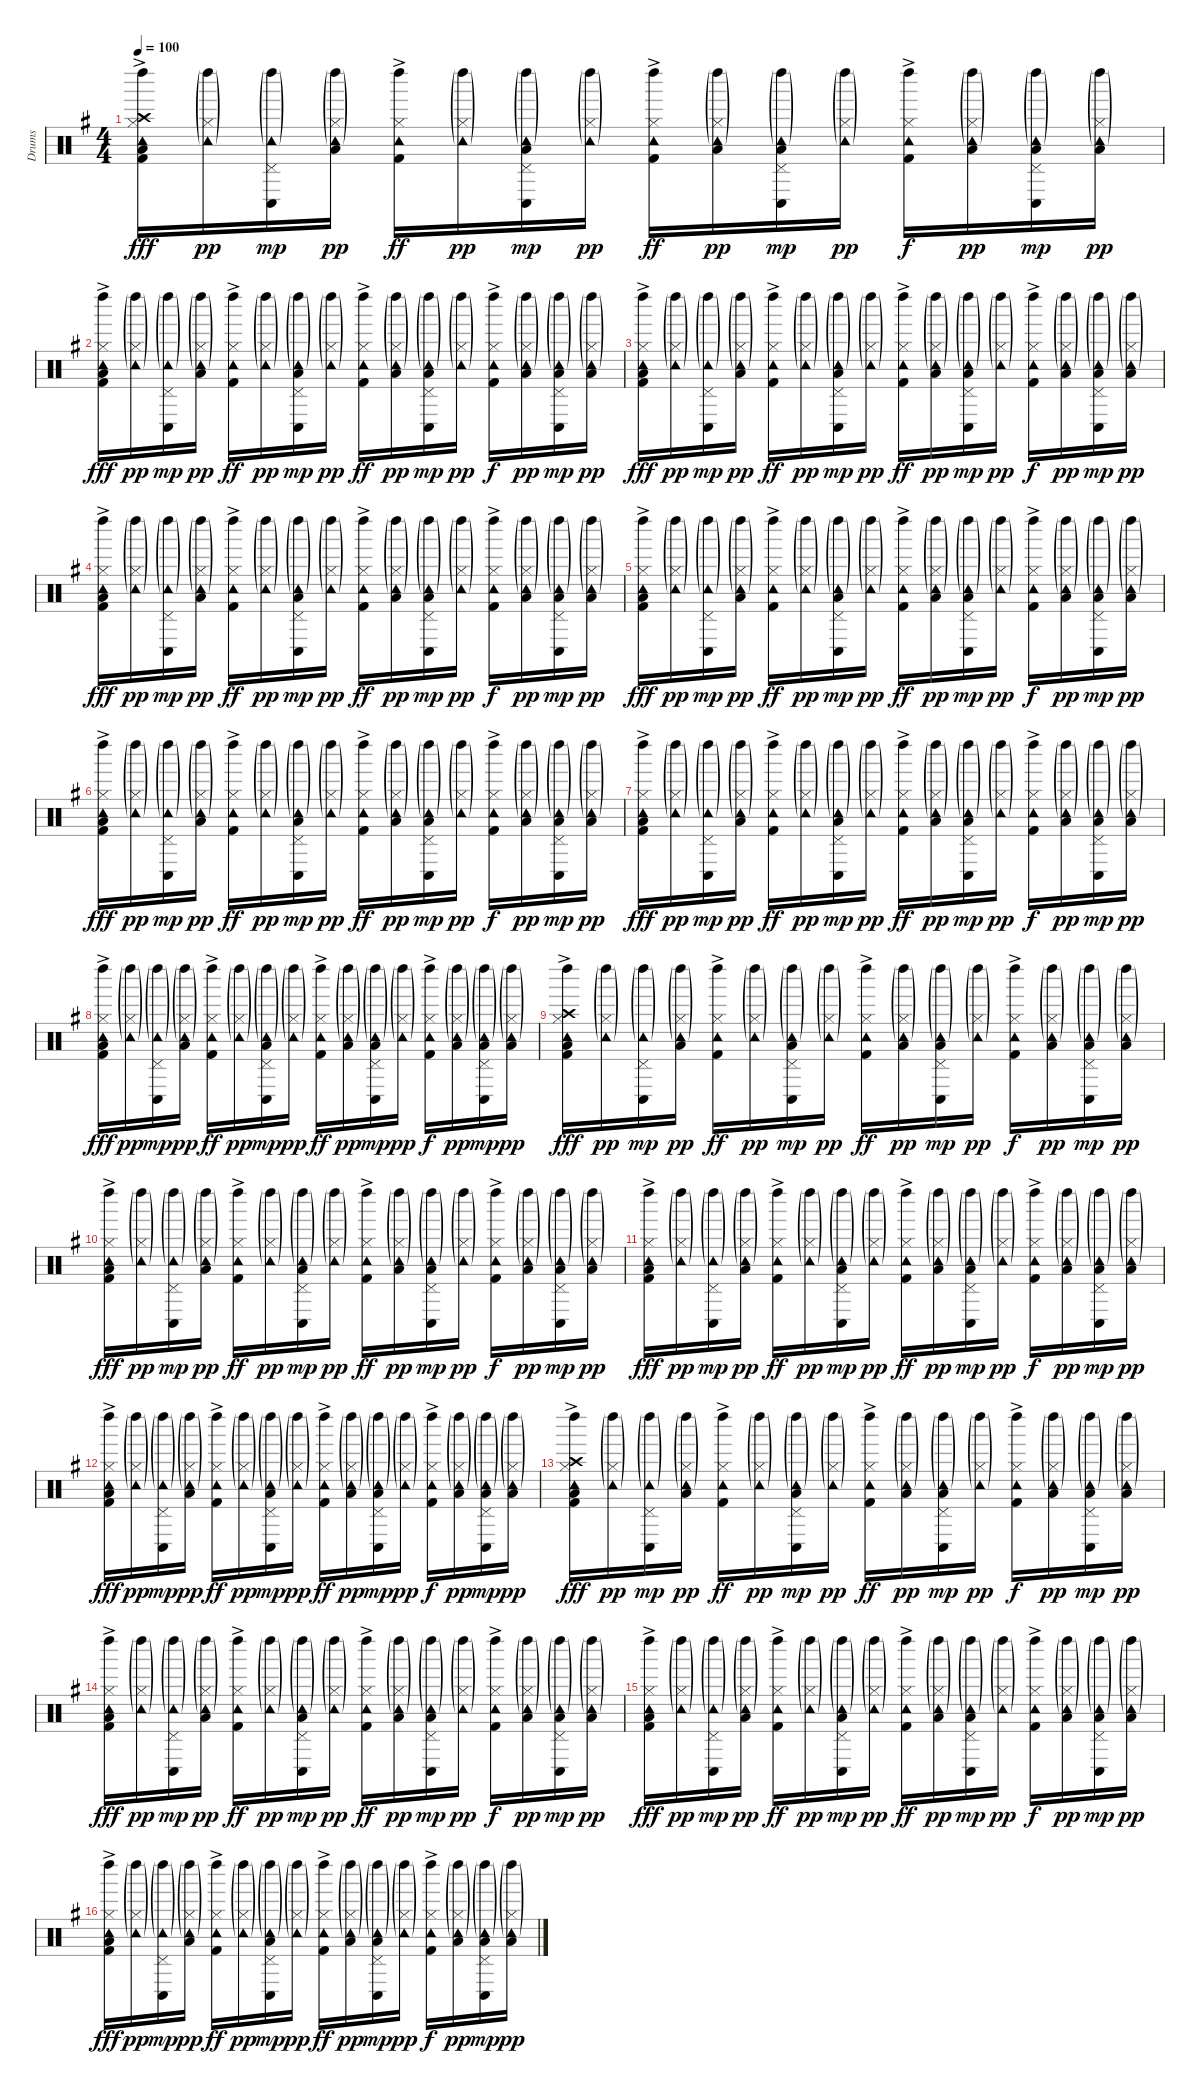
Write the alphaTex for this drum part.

\track ("Drums" "Drums") {instrument percussion}
\staff {score}
\articulation defaults
\ts (4 4)
\tempo 100
\clef neutral
\ks g
("Kick (hit) 2"{ac} "Low Floor Tom (hit)" "Crash high (hit)" "Hi-Hat (closed)" "Tambourine (hit)" "Left Maraca (hit)").16{dy fff} ("Hi-Hat (closed)"{g} "Tambourine (hit)"{g} "Left Maraca (hit)"{g}).16{dy pp} ("Conga low (hit)" "Pedal Hi-Hat (hit)" "Tambourine (hit)"{g} "Left Maraca (hit)"{g}).16{dy mp} ("Low Floor Tom (hit)" "Hi-Hat (closed)"{g} "Tambourine (hit)"{g} "Left Maraca (hit)"{g}).16{dy pp} ("Kick (hit) 2"{ac} "Hi-Hat (closed)" "Tambourine (hit)" "Left Maraca (hit)").16{dy ff} ("Hi-Hat (closed)"{g} "Tambourine (hit)"{g} "Left Maraca (hit)"{g}).16{dy pp} ("Low Floor Tom (hit)" "Conga low (hit)" "Pedal Hi-Hat (hit)" "Tambourine (hit)"{g} "Left Maraca (hit)"{g}).16{dy mp} ("Hi-Hat (closed)"{g} "Tambourine (hit)"{g} "Left Maraca (hit)"{g}).16{dy pp} ("Kick (hit) 2"{ac} "Hi-Hat (closed)" "Tambourine (hit)" "Left Maraca (hit)").16{dy ff} ("Low Floor Tom (hit)" "Hi-Hat (closed)"{g} "Tambourine (hit)"{g} "Left Maraca (hit)"{g}).16{dy pp} ("Low Floor Tom (hit)" "Conga low (hit)" "Pedal Hi-Hat (hit)" "Tambourine (hit)"{g} "Left Maraca (hit)"{g}).16{dy mp} ("Hi-Hat (closed)"{g} "Tambourine (hit)"{g} "Left Maraca (hit)"{g}).16{dy pp} ("Kick (hit) 2"{ac} "Hi-Hat (closed)" "Tambourine (hit)" "Left Maraca (hit)").16{dy f} ("Low Floor Tom (hit)" "Hi-Hat (closed)"{g} "Tambourine (hit)"{g} "Left Maraca (hit)"{g}).16{dy pp} ("Low Floor Tom (hit)" "Conga low (hit)" "Pedal Hi-Hat (hit)" "Tambourine (hit)"{g} "Left Maraca (hit)"{g}).16{dy mp} ("Low Floor Tom (hit)" "Hi-Hat (closed)"{g} "Tambourine (hit)"{g} "Left Maraca (hit)"{g}).16{dy pp} |
("Kick (hit) 2"{ac} "Low Floor Tom (hit)" "Hi-Hat (closed)" "Tambourine (hit)" "Left Maraca (hit)").16{dy fff} ("Hi-Hat (closed)"{g} "Tambourine (hit)"{g} "Left Maraca (hit)"{g}).16{dy pp} ("Conga low (hit)" "Pedal Hi-Hat (hit)" "Tambourine (hit)"{g} "Left Maraca (hit)"{g}).16{dy mp} ("Low Floor Tom (hit)" "Hi-Hat (closed)"{g} "Tambourine (hit)"{g} "Left Maraca (hit)"{g}).16{dy pp} ("Kick (hit) 2"{ac} "Hi-Hat (closed)" "Tambourine (hit)" "Left Maraca (hit)").16{dy ff} ("Hi-Hat (closed)"{g} "Tambourine (hit)"{g} "Left Maraca (hit)"{g}).16{dy pp} ("Low Floor Tom (hit)" "Conga low (hit)" "Pedal Hi-Hat (hit)" "Tambourine (hit)"{g} "Left Maraca (hit)"{g}).16{dy mp} ("Hi-Hat (closed)"{g} "Tambourine (hit)"{g} "Left Maraca (hit)"{g}).16{dy pp} ("Kick (hit) 2"{ac} "Hi-Hat (closed)" "Tambourine (hit)" "Left Maraca (hit)").16{dy ff} ("Low Floor Tom (hit)" "Hi-Hat (closed)"{g} "Tambourine (hit)"{g} "Left Maraca (hit)"{g}).16{dy pp} ("Low Floor Tom (hit)" "Conga low (hit)" "Pedal Hi-Hat (hit)" "Tambourine (hit)"{g} "Left Maraca (hit)"{g}).16{dy mp} ("Hi-Hat (closed)"{g} "Tambourine (hit)"{g} "Left Maraca (hit)"{g}).16{dy pp} ("Kick (hit) 2"{ac} "Hi-Hat (closed)" "Tambourine (hit)" "Left Maraca (hit)").16{dy f} ("Low Floor Tom (hit)" "Hi-Hat (closed)"{g} "Tambourine (hit)"{g} "Left Maraca (hit)"{g}).16{dy pp} ("Low Floor Tom (hit)" "Conga low (hit)" "Pedal Hi-Hat (hit)" "Tambourine (hit)"{g} "Left Maraca (hit)"{g}).16{dy mp} ("Low Floor Tom (hit)" "Hi-Hat (closed)"{g} "Tambourine (hit)"{g} "Left Maraca (hit)"{g}).16{dy pp} |
("Kick (hit) 2"{ac} "Low Floor Tom (hit)" "Hi-Hat (closed)" "Tambourine (hit)" "Left Maraca (hit)").16{dy fff} ("Hi-Hat (closed)"{g} "Tambourine (hit)"{g} "Left Maraca (hit)"{g}).16{dy pp} ("Conga low (hit)" "Pedal Hi-Hat (hit)" "Tambourine (hit)"{g} "Left Maraca (hit)"{g}).16{dy mp} ("Low Floor Tom (hit)" "Hi-Hat (closed)"{g} "Tambourine (hit)"{g} "Left Maraca (hit)"{g}).16{dy pp} ("Kick (hit) 2"{ac} "Hi-Hat (closed)" "Tambourine (hit)" "Left Maraca (hit)").16{dy ff} ("Hi-Hat (closed)"{g} "Tambourine (hit)"{g} "Left Maraca (hit)"{g}).16{dy pp} ("Low Floor Tom (hit)" "Conga low (hit)" "Pedal Hi-Hat (hit)" "Tambourine (hit)"{g} "Left Maraca (hit)"{g}).16{dy mp} ("Hi-Hat (closed)"{g} "Tambourine (hit)"{g} "Left Maraca (hit)"{g}).16{dy pp} ("Kick (hit) 2"{ac} "Hi-Hat (closed)" "Tambourine (hit)" "Left Maraca (hit)").16{dy ff} ("Low Floor Tom (hit)" "Hi-Hat (closed)"{g} "Tambourine (hit)"{g} "Left Maraca (hit)"{g}).16{dy pp} ("Low Floor Tom (hit)" "Conga low (hit)" "Pedal Hi-Hat (hit)" "Tambourine (hit)"{g} "Left Maraca (hit)"{g}).16{dy mp} ("Hi-Hat (closed)"{g} "Tambourine (hit)"{g} "Left Maraca (hit)"{g}).16{dy pp} ("Kick (hit) 2"{ac} "Hi-Hat (closed)" "Tambourine (hit)" "Left Maraca (hit)").16{dy f} ("Low Floor Tom (hit)" "Hi-Hat (closed)"{g} "Tambourine (hit)"{g} "Left Maraca (hit)"{g}).16{dy pp} ("Low Floor Tom (hit)" "Conga low (hit)" "Pedal Hi-Hat (hit)" "Tambourine (hit)"{g} "Left Maraca (hit)"{g}).16{dy mp} ("Low Floor Tom (hit)" "Hi-Hat (closed)"{g} "Tambourine (hit)"{g} "Left Maraca (hit)"{g}).16{dy pp} |
("Kick (hit) 2"{ac} "Low Floor Tom (hit)" "Hi-Hat (closed)" "Tambourine (hit)" "Left Maraca (hit)").16{dy fff} ("Hi-Hat (closed)"{g} "Tambourine (hit)"{g} "Left Maraca (hit)"{g}).16{dy pp} ("Conga low (hit)" "Pedal Hi-Hat (hit)" "Tambourine (hit)"{g} "Left Maraca (hit)"{g}).16{dy mp} ("Low Floor Tom (hit)" "Hi-Hat (closed)"{g} "Tambourine (hit)"{g} "Left Maraca (hit)"{g}).16{dy pp} ("Kick (hit) 2"{ac} "Hi-Hat (closed)" "Tambourine (hit)" "Left Maraca (hit)").16{dy ff} ("Hi-Hat (closed)"{g} "Tambourine (hit)"{g} "Left Maraca (hit)"{g}).16{dy pp} ("Low Floor Tom (hit)" "Conga low (hit)" "Pedal Hi-Hat (hit)" "Tambourine (hit)"{g} "Left Maraca (hit)"{g}).16{dy mp} ("Hi-Hat (closed)"{g} "Tambourine (hit)"{g} "Left Maraca (hit)"{g}).16{dy pp} ("Kick (hit) 2"{ac} "Hi-Hat (closed)" "Tambourine (hit)" "Left Maraca (hit)").16{dy ff} ("Low Floor Tom (hit)" "Hi-Hat (closed)"{g} "Tambourine (hit)"{g} "Left Maraca (hit)"{g}).16{dy pp} ("Low Floor Tom (hit)" "Conga low (hit)" "Pedal Hi-Hat (hit)" "Tambourine (hit)"{g} "Left Maraca (hit)"{g}).16{dy mp} ("Hi-Hat (closed)"{g} "Tambourine (hit)"{g} "Left Maraca (hit)"{g}).16{dy pp} ("Kick (hit) 2"{ac} "Hi-Hat (closed)" "Tambourine (hit)" "Left Maraca (hit)").16{dy f} ("Low Floor Tom (hit)" "Hi-Hat (closed)"{g} "Tambourine (hit)"{g} "Left Maraca (hit)"{g}).16{dy pp} ("Low Floor Tom (hit)" "Conga low (hit)" "Pedal Hi-Hat (hit)" "Tambourine (hit)"{g} "Left Maraca (hit)"{g}).16{dy mp} ("Low Floor Tom (hit)" "Hi-Hat (closed)"{g} "Tambourine (hit)"{g} "Left Maraca (hit)"{g}).16{dy pp} |
("Kick (hit) 2"{ac} "Low Floor Tom (hit)" "Hi-Hat (closed)" "Tambourine (hit)" "Left Maraca (hit)").16{dy fff} ("Hi-Hat (closed)"{g} "Tambourine (hit)"{g} "Left Maraca (hit)"{g}).16{dy pp} ("Conga low (hit)" "Pedal Hi-Hat (hit)" "Tambourine (hit)"{g} "Left Maraca (hit)"{g}).16{dy mp} ("Low Floor Tom (hit)" "Hi-Hat (closed)"{g} "Tambourine (hit)"{g} "Left Maraca (hit)"{g}).16{dy pp} ("Kick (hit) 2"{ac} "Hi-Hat (closed)" "Tambourine (hit)" "Left Maraca (hit)").16{dy ff} ("Hi-Hat (closed)"{g} "Tambourine (hit)"{g} "Left Maraca (hit)"{g}).16{dy pp} ("Low Floor Tom (hit)" "Conga low (hit)" "Pedal Hi-Hat (hit)" "Tambourine (hit)"{g} "Left Maraca (hit)"{g}).16{dy mp} ("Hi-Hat (closed)"{g} "Tambourine (hit)"{g} "Left Maraca (hit)"{g}).16{dy pp} ("Kick (hit) 2"{ac} "Hi-Hat (closed)" "Tambourine (hit)" "Left Maraca (hit)").16{dy ff} ("Low Floor Tom (hit)" "Hi-Hat (closed)"{g} "Tambourine (hit)"{g} "Left Maraca (hit)"{g}).16{dy pp} ("Low Floor Tom (hit)" "Conga low (hit)" "Pedal Hi-Hat (hit)" "Tambourine (hit)"{g} "Left Maraca (hit)"{g}).16{dy mp} ("Hi-Hat (closed)"{g} "Tambourine (hit)"{g} "Left Maraca (hit)"{g}).16{dy pp} ("Kick (hit) 2"{ac} "Hi-Hat (closed)" "Tambourine (hit)" "Left Maraca (hit)").16{dy f} ("Low Floor Tom (hit)" "Hi-Hat (closed)"{g} "Tambourine (hit)"{g} "Left Maraca (hit)"{g}).16{dy pp} ("Low Floor Tom (hit)" "Conga low (hit)" "Pedal Hi-Hat (hit)" "Tambourine (hit)"{g} "Left Maraca (hit)"{g}).16{dy mp} ("Low Floor Tom (hit)" "Hi-Hat (closed)"{g} "Tambourine (hit)"{g} "Left Maraca (hit)"{g}).16{dy pp} |
("Kick (hit) 2"{ac} "Low Floor Tom (hit)" "Hi-Hat (closed)" "Tambourine (hit)" "Left Maraca (hit)").16{dy fff} ("Hi-Hat (closed)"{g} "Tambourine (hit)"{g} "Left Maraca (hit)"{g}).16{dy pp} ("Conga low (hit)" "Pedal Hi-Hat (hit)" "Tambourine (hit)"{g} "Left Maraca (hit)"{g}).16{dy mp} ("Low Floor Tom (hit)" "Hi-Hat (closed)"{g} "Tambourine (hit)"{g} "Left Maraca (hit)"{g}).16{dy pp} ("Kick (hit) 2"{ac} "Hi-Hat (closed)" "Tambourine (hit)" "Left Maraca (hit)").16{dy ff} ("Hi-Hat (closed)"{g} "Tambourine (hit)"{g} "Left Maraca (hit)"{g}).16{dy pp} ("Low Floor Tom (hit)" "Conga low (hit)" "Pedal Hi-Hat (hit)" "Tambourine (hit)"{g} "Left Maraca (hit)"{g}).16{dy mp} ("Hi-Hat (closed)"{g} "Tambourine (hit)"{g} "Left Maraca (hit)"{g}).16{dy pp} ("Kick (hit) 2"{ac} "Hi-Hat (closed)" "Tambourine (hit)" "Left Maraca (hit)").16{dy ff} ("Low Floor Tom (hit)" "Hi-Hat (closed)"{g} "Tambourine (hit)"{g} "Left Maraca (hit)"{g}).16{dy pp} ("Low Floor Tom (hit)" "Conga low (hit)" "Pedal Hi-Hat (hit)" "Tambourine (hit)"{g} "Left Maraca (hit)"{g}).16{dy mp} ("Hi-Hat (closed)"{g} "Tambourine (hit)"{g} "Left Maraca (hit)"{g}).16{dy pp} ("Kick (hit) 2"{ac} "Hi-Hat (closed)" "Tambourine (hit)" "Left Maraca (hit)").16{dy f} ("Low Floor Tom (hit)" "Hi-Hat (closed)"{g} "Tambourine (hit)"{g} "Left Maraca (hit)"{g}).16{dy pp} ("Low Floor Tom (hit)" "Conga low (hit)" "Pedal Hi-Hat (hit)" "Tambourine (hit)"{g} "Left Maraca (hit)"{g}).16{dy mp} ("Low Floor Tom (hit)" "Hi-Hat (closed)"{g} "Tambourine (hit)"{g} "Left Maraca (hit)"{g}).16{dy pp} |
("Kick (hit) 2"{ac} "Low Floor Tom (hit)" "Hi-Hat (closed)" "Tambourine (hit)" "Left Maraca (hit)").16{dy fff} ("Hi-Hat (closed)"{g} "Tambourine (hit)"{g} "Left Maraca (hit)"{g}).16{dy pp} ("Conga low (hit)" "Pedal Hi-Hat (hit)" "Tambourine (hit)"{g} "Left Maraca (hit)"{g}).16{dy mp} ("Low Floor Tom (hit)" "Hi-Hat (closed)"{g} "Tambourine (hit)"{g} "Left Maraca (hit)"{g}).16{dy pp} ("Kick (hit) 2"{ac} "Hi-Hat (closed)" "Tambourine (hit)" "Left Maraca (hit)").16{dy ff} ("Hi-Hat (closed)"{g} "Tambourine (hit)"{g} "Left Maraca (hit)"{g}).16{dy pp} ("Low Floor Tom (hit)" "Conga low (hit)" "Pedal Hi-Hat (hit)" "Tambourine (hit)"{g} "Left Maraca (hit)"{g}).16{dy mp} ("Hi-Hat (closed)"{g} "Tambourine (hit)"{g} "Left Maraca (hit)"{g}).16{dy pp} ("Kick (hit) 2"{ac} "Hi-Hat (closed)" "Tambourine (hit)" "Left Maraca (hit)").16{dy ff} ("Low Floor Tom (hit)" "Hi-Hat (closed)"{g} "Tambourine (hit)"{g} "Left Maraca (hit)"{g}).16{dy pp} ("Low Floor Tom (hit)" "Conga low (hit)" "Pedal Hi-Hat (hit)" "Tambourine (hit)"{g} "Left Maraca (hit)"{g}).16{dy mp} ("Hi-Hat (closed)"{g} "Tambourine (hit)"{g} "Left Maraca (hit)"{g}).16{dy pp} ("Kick (hit) 2"{ac} "Hi-Hat (closed)" "Tambourine (hit)" "Left Maraca (hit)").16{dy f} ("Low Floor Tom (hit)" "Hi-Hat (closed)"{g} "Tambourine (hit)"{g} "Left Maraca (hit)"{g}).16{dy pp} ("Low Floor Tom (hit)" "Conga low (hit)" "Pedal Hi-Hat (hit)" "Tambourine (hit)"{g} "Left Maraca (hit)"{g}).16{dy mp} ("Low Floor Tom (hit)" "Hi-Hat (closed)"{g} "Tambourine (hit)"{g} "Left Maraca (hit)"{g}).16{dy pp} |
("Kick (hit) 2"{ac} "Low Floor Tom (hit)" "Hi-Hat (closed)" "Tambourine (hit)" "Left Maraca (hit)").16{dy fff} ("Hi-Hat (closed)"{g} "Tambourine (hit)"{g} "Left Maraca (hit)"{g}).16{dy pp} ("Conga low (hit)" "Pedal Hi-Hat (hit)" "Tambourine (hit)"{g} "Left Maraca (hit)"{g}).16{dy mp} ("Low Floor Tom (hit)" "Hi-Hat (closed)"{g} "Tambourine (hit)"{g} "Left Maraca (hit)"{g}).16{dy pp} ("Kick (hit) 2"{ac} "Hi-Hat (closed)" "Tambourine (hit)" "Left Maraca (hit)").16{dy ff} ("Hi-Hat (closed)"{g} "Tambourine (hit)"{g} "Left Maraca (hit)"{g}).16{dy pp} ("Low Floor Tom (hit)" "Conga low (hit)" "Pedal Hi-Hat (hit)" "Tambourine (hit)"{g} "Left Maraca (hit)"{g}).16{dy mp} ("Hi-Hat (closed)"{g} "Tambourine (hit)"{g} "Left Maraca (hit)"{g}).16{dy pp} ("Kick (hit) 2"{ac} "Hi-Hat (closed)" "Tambourine (hit)" "Left Maraca (hit)").16{dy ff} ("Low Floor Tom (hit)" "Hi-Hat (closed)"{g} "Tambourine (hit)"{g} "Left Maraca (hit)"{g}).16{dy pp} ("Low Floor Tom (hit)" "Conga low (hit)" "Pedal Hi-Hat (hit)" "Tambourine (hit)"{g} "Left Maraca (hit)"{g}).16{dy mp} ("Hi-Hat (closed)"{g} "Tambourine (hit)"{g} "Left Maraca (hit)"{g}).16{dy pp} ("Kick (hit) 2"{ac} "Hi-Hat (closed)" "Tambourine (hit)" "Left Maraca (hit)").16{dy f} ("Low Floor Tom (hit)" "Hi-Hat (closed)"{g} "Tambourine (hit)"{g} "Left Maraca (hit)"{g}).16{dy pp} ("Low Floor Tom (hit)" "Conga low (hit)" "Pedal Hi-Hat (hit)" "Tambourine (hit)"{g} "Left Maraca (hit)"{g}).16{dy mp} ("Low Floor Tom (hit)" "Hi-Hat (closed)"{g} "Tambourine (hit)"{g} "Left Maraca (hit)"{g}).16{dy pp} |
("Kick (hit) 2"{ac} "Low Floor Tom (hit)" "Crash high (hit)" "Hi-Hat (closed)" "Tambourine (hit)" "Left Maraca (hit)").16{dy fff} ("Hi-Hat (closed)"{g} "Tambourine (hit)"{g} "Left Maraca (hit)"{g}).16{dy pp} ("Conga low (hit)" "Pedal Hi-Hat (hit)" "Tambourine (hit)"{g} "Left Maraca (hit)"{g}).16{dy mp} ("Low Floor Tom (hit)" "Hi-Hat (closed)"{g} "Tambourine (hit)"{g} "Left Maraca (hit)"{g}).16{dy pp} ("Kick (hit) 2"{ac} "Hi-Hat (closed)" "Tambourine (hit)" "Left Maraca (hit)").16{dy ff} ("Hi-Hat (closed)"{g} "Tambourine (hit)"{g} "Left Maraca (hit)"{g}).16{dy pp} ("Low Floor Tom (hit)" "Conga low (hit)" "Pedal Hi-Hat (hit)" "Tambourine (hit)"{g} "Left Maraca (hit)"{g}).16{dy mp} ("Hi-Hat (closed)"{g} "Tambourine (hit)"{g} "Left Maraca (hit)"{g}).16{dy pp} ("Kick (hit) 2"{ac} "Hi-Hat (closed)" "Tambourine (hit)" "Left Maraca (hit)").16{dy ff} ("Low Floor Tom (hit)" "Hi-Hat (closed)"{g} "Tambourine (hit)"{g} "Left Maraca (hit)"{g}).16{dy pp} ("Low Floor Tom (hit)" "Conga low (hit)" "Pedal Hi-Hat (hit)" "Tambourine (hit)"{g} "Left Maraca (hit)"{g}).16{dy mp} ("Hi-Hat (closed)"{g} "Tambourine (hit)"{g} "Left Maraca (hit)"{g}).16{dy pp} ("Kick (hit) 2"{ac} "Hi-Hat (closed)" "Tambourine (hit)" "Left Maraca (hit)").16{dy f} ("Low Floor Tom (hit)" "Hi-Hat (closed)"{g} "Tambourine (hit)"{g} "Left Maraca (hit)"{g}).16{dy pp} ("Low Floor Tom (hit)" "Conga low (hit)" "Pedal Hi-Hat (hit)" "Tambourine (hit)"{g} "Left Maraca (hit)"{g}).16{dy mp} ("Low Floor Tom (hit)" "Hi-Hat (closed)"{g} "Tambourine (hit)"{g} "Left Maraca (hit)"{g}).16{dy pp} |
("Kick (hit) 2"{ac} "Low Floor Tom (hit)" "Hi-Hat (closed)" "Tambourine (hit)" "Left Maraca (hit)").16{dy fff} ("Hi-Hat (closed)"{g} "Tambourine (hit)"{g} "Left Maraca (hit)"{g}).16{dy pp} ("Conga low (hit)" "Pedal Hi-Hat (hit)" "Tambourine (hit)"{g} "Left Maraca (hit)"{g}).16{dy mp} ("Low Floor Tom (hit)" "Hi-Hat (closed)"{g} "Tambourine (hit)"{g} "Left Maraca (hit)"{g}).16{dy pp} ("Kick (hit) 2"{ac} "Hi-Hat (closed)" "Tambourine (hit)" "Left Maraca (hit)").16{dy ff} ("Hi-Hat (closed)"{g} "Tambourine (hit)"{g} "Left Maraca (hit)"{g}).16{dy pp} ("Low Floor Tom (hit)" "Conga low (hit)" "Pedal Hi-Hat (hit)" "Tambourine (hit)"{g} "Left Maraca (hit)"{g}).16{dy mp} ("Hi-Hat (closed)"{g} "Tambourine (hit)"{g} "Left Maraca (hit)"{g}).16{dy pp} ("Kick (hit) 2"{ac} "Hi-Hat (closed)" "Tambourine (hit)" "Left Maraca (hit)").16{dy ff} ("Low Floor Tom (hit)" "Hi-Hat (closed)"{g} "Tambourine (hit)"{g} "Left Maraca (hit)"{g}).16{dy pp} ("Low Floor Tom (hit)" "Conga low (hit)" "Pedal Hi-Hat (hit)" "Tambourine (hit)"{g} "Left Maraca (hit)"{g}).16{dy mp} ("Hi-Hat (closed)"{g} "Tambourine (hit)"{g} "Left Maraca (hit)"{g}).16{dy pp} ("Kick (hit) 2"{ac} "Hi-Hat (closed)" "Tambourine (hit)" "Left Maraca (hit)").16{dy f} ("Low Floor Tom (hit)" "Hi-Hat (closed)"{g} "Tambourine (hit)"{g} "Left Maraca (hit)"{g}).16{dy pp} ("Low Floor Tom (hit)" "Conga low (hit)" "Pedal Hi-Hat (hit)" "Tambourine (hit)"{g} "Left Maraca (hit)"{g}).16{dy mp} ("Low Floor Tom (hit)" "Hi-Hat (closed)"{g} "Tambourine (hit)"{g} "Left Maraca (hit)"{g}).16{dy pp} |
("Kick (hit) 2"{ac} "Low Floor Tom (hit)" "Hi-Hat (closed)" "Tambourine (hit)" "Left Maraca (hit)").16{dy fff} ("Hi-Hat (closed)"{g} "Tambourine (hit)"{g} "Left Maraca (hit)"{g}).16{dy pp} ("Conga low (hit)" "Pedal Hi-Hat (hit)" "Tambourine (hit)"{g} "Left Maraca (hit)"{g}).16{dy mp} ("Low Floor Tom (hit)" "Hi-Hat (closed)"{g} "Tambourine (hit)"{g} "Left Maraca (hit)"{g}).16{dy pp} ("Kick (hit) 2"{ac} "Hi-Hat (closed)" "Tambourine (hit)" "Left Maraca (hit)").16{dy ff} ("Hi-Hat (closed)"{g} "Tambourine (hit)"{g} "Left Maraca (hit)"{g}).16{dy pp} ("Low Floor Tom (hit)" "Conga low (hit)" "Pedal Hi-Hat (hit)" "Tambourine (hit)"{g} "Left Maraca (hit)"{g}).16{dy mp} ("Hi-Hat (closed)"{g} "Tambourine (hit)"{g} "Left Maraca (hit)"{g}).16{dy pp} ("Kick (hit) 2"{ac} "Hi-Hat (closed)" "Tambourine (hit)" "Left Maraca (hit)").16{dy ff} ("Low Floor Tom (hit)" "Hi-Hat (closed)"{g} "Tambourine (hit)"{g} "Left Maraca (hit)"{g}).16{dy pp} ("Low Floor Tom (hit)" "Conga low (hit)" "Pedal Hi-Hat (hit)" "Tambourine (hit)"{g} "Left Maraca (hit)"{g}).16{dy mp} ("Hi-Hat (closed)"{g} "Tambourine (hit)"{g} "Left Maraca (hit)"{g}).16{dy pp} ("Kick (hit) 2"{ac} "Hi-Hat (closed)" "Tambourine (hit)" "Left Maraca (hit)").16{dy f} ("Low Floor Tom (hit)" "Hi-Hat (closed)"{g} "Tambourine (hit)"{g} "Left Maraca (hit)"{g}).16{dy pp} ("Low Floor Tom (hit)" "Conga low (hit)" "Pedal Hi-Hat (hit)" "Tambourine (hit)"{g} "Left Maraca (hit)"{g}).16{dy mp} ("Low Floor Tom (hit)" "Hi-Hat (closed)"{g} "Tambourine (hit)"{g} "Left Maraca (hit)"{g}).16{dy pp} |
("Kick (hit) 2"{ac} "Low Floor Tom (hit)" "Hi-Hat (closed)" "Tambourine (hit)" "Left Maraca (hit)").16{dy fff} ("Hi-Hat (closed)"{g} "Tambourine (hit)"{g} "Left Maraca (hit)"{g}).16{dy pp} ("Conga low (hit)" "Pedal Hi-Hat (hit)" "Tambourine (hit)"{g} "Left Maraca (hit)"{g}).16{dy mp} ("Low Floor Tom (hit)" "Hi-Hat (closed)"{g} "Tambourine (hit)"{g} "Left Maraca (hit)"{g}).16{dy pp} ("Kick (hit) 2"{ac} "Hi-Hat (closed)" "Tambourine (hit)" "Left Maraca (hit)").16{dy ff} ("Hi-Hat (closed)"{g} "Tambourine (hit)"{g} "Left Maraca (hit)"{g}).16{dy pp} ("Low Floor Tom (hit)" "Conga low (hit)" "Pedal Hi-Hat (hit)" "Tambourine (hit)"{g} "Left Maraca (hit)"{g}).16{dy mp} ("Hi-Hat (closed)"{g} "Tambourine (hit)"{g} "Left Maraca (hit)"{g}).16{dy pp} ("Kick (hit) 2"{ac} "Hi-Hat (closed)" "Tambourine (hit)" "Left Maraca (hit)").16{dy ff} ("Low Floor Tom (hit)" "Hi-Hat (closed)"{g} "Tambourine (hit)"{g} "Left Maraca (hit)"{g}).16{dy pp} ("Low Floor Tom (hit)" "Conga low (hit)" "Pedal Hi-Hat (hit)" "Tambourine (hit)"{g} "Left Maraca (hit)"{g}).16{dy mp} ("Hi-Hat (closed)"{g} "Tambourine (hit)"{g} "Left Maraca (hit)"{g}).16{dy pp} ("Kick (hit) 2"{ac} "Hi-Hat (closed)" "Tambourine (hit)" "Left Maraca (hit)").16{dy f} ("Low Floor Tom (hit)" "Hi-Hat (closed)"{g} "Tambourine (hit)"{g} "Left Maraca (hit)"{g}).16{dy pp} ("Low Floor Tom (hit)" "Conga low (hit)" "Pedal Hi-Hat (hit)" "Tambourine (hit)"{g} "Left Maraca (hit)"{g}).16{dy mp} ("Low Floor Tom (hit)" "Hi-Hat (closed)"{g} "Tambourine (hit)"{g} "Left Maraca (hit)"{g}).16{dy pp} |
("Kick (hit) 2"{ac} "Low Floor Tom (hit)" "Crash high (hit)" "Hi-Hat (closed)" "Tambourine (hit)" "Left Maraca (hit)").16{dy fff} ("Hi-Hat (closed)"{g} "Tambourine (hit)"{g} "Left Maraca (hit)"{g}).16{dy pp} ("Conga low (hit)" "Pedal Hi-Hat (hit)" "Tambourine (hit)"{g} "Left Maraca (hit)"{g}).16{dy mp} ("Low Floor Tom (hit)" "Hi-Hat (closed)"{g} "Tambourine (hit)"{g} "Left Maraca (hit)"{g}).16{dy pp} ("Kick (hit) 2"{ac} "Hi-Hat (closed)" "Tambourine (hit)" "Left Maraca (hit)").16{dy ff} ("Hi-Hat (closed)"{g} "Tambourine (hit)"{g} "Left Maraca (hit)"{g}).16{dy pp} ("Low Floor Tom (hit)" "Conga low (hit)" "Pedal Hi-Hat (hit)" "Tambourine (hit)"{g} "Left Maraca (hit)"{g}).16{dy mp} ("Hi-Hat (closed)"{g} "Tambourine (hit)"{g} "Left Maraca (hit)"{g}).16{dy pp} ("Kick (hit) 2"{ac} "Hi-Hat (closed)" "Tambourine (hit)" "Left Maraca (hit)").16{dy ff} ("Low Floor Tom (hit)" "Hi-Hat (closed)"{g} "Tambourine (hit)"{g} "Left Maraca (hit)"{g}).16{dy pp} ("Low Floor Tom (hit)" "Conga low (hit)" "Pedal Hi-Hat (hit)" "Tambourine (hit)"{g} "Left Maraca (hit)"{g}).16{dy mp} ("Hi-Hat (closed)"{g} "Tambourine (hit)"{g} "Left Maraca (hit)"{g}).16{dy pp} ("Kick (hit) 2"{ac} "Hi-Hat (closed)" "Tambourine (hit)" "Left Maraca (hit)").16{dy f} ("Low Floor Tom (hit)" "Hi-Hat (closed)"{g} "Tambourine (hit)"{g} "Left Maraca (hit)"{g}).16{dy pp} ("Low Floor Tom (hit)" "Conga low (hit)" "Pedal Hi-Hat (hit)" "Tambourine (hit)"{g} "Left Maraca (hit)"{g}).16{dy mp} ("Low Floor Tom (hit)" "Hi-Hat (closed)"{g} "Tambourine (hit)"{g} "Left Maraca (hit)"{g}).16{dy pp} |
("Kick (hit) 2"{ac} "Low Floor Tom (hit)" "Hi-Hat (closed)" "Tambourine (hit)" "Left Maraca (hit)").16{dy fff} ("Hi-Hat (closed)"{g} "Tambourine (hit)"{g} "Left Maraca (hit)"{g}).16{dy pp} ("Conga low (hit)" "Pedal Hi-Hat (hit)" "Tambourine (hit)"{g} "Left Maraca (hit)"{g}).16{dy mp} ("Low Floor Tom (hit)" "Hi-Hat (closed)"{g} "Tambourine (hit)"{g} "Left Maraca (hit)"{g}).16{dy pp} ("Kick (hit) 2"{ac} "Hi-Hat (closed)" "Tambourine (hit)" "Left Maraca (hit)").16{dy ff} ("Hi-Hat (closed)"{g} "Tambourine (hit)"{g} "Left Maraca (hit)"{g}).16{dy pp} ("Low Floor Tom (hit)" "Conga low (hit)" "Pedal Hi-Hat (hit)" "Tambourine (hit)"{g} "Left Maraca (hit)"{g}).16{dy mp} ("Hi-Hat (closed)"{g} "Tambourine (hit)"{g} "Left Maraca (hit)"{g}).16{dy pp} ("Kick (hit) 2"{ac} "Hi-Hat (closed)" "Tambourine (hit)" "Left Maraca (hit)").16{dy ff} ("Low Floor Tom (hit)" "Hi-Hat (closed)"{g} "Tambourine (hit)"{g} "Left Maraca (hit)"{g}).16{dy pp} ("Low Floor Tom (hit)" "Conga low (hit)" "Pedal Hi-Hat (hit)" "Tambourine (hit)"{g} "Left Maraca (hit)"{g}).16{dy mp} ("Hi-Hat (closed)"{g} "Tambourine (hit)"{g} "Left Maraca (hit)"{g}).16{dy pp} ("Kick (hit) 2"{ac} "Hi-Hat (closed)" "Tambourine (hit)" "Left Maraca (hit)").16{dy f} ("Low Floor Tom (hit)" "Hi-Hat (closed)"{g} "Tambourine (hit)"{g} "Left Maraca (hit)"{g}).16{dy pp} ("Low Floor Tom (hit)" "Conga low (hit)" "Pedal Hi-Hat (hit)" "Tambourine (hit)"{g} "Left Maraca (hit)"{g}).16{dy mp} ("Low Floor Tom (hit)" "Hi-Hat (closed)"{g} "Tambourine (hit)"{g} "Left Maraca (hit)"{g}).16{dy pp} |
("Kick (hit) 2"{ac} "Low Floor Tom (hit)" "Hi-Hat (closed)" "Tambourine (hit)" "Left Maraca (hit)").16{dy fff} ("Hi-Hat (closed)"{g} "Tambourine (hit)"{g} "Left Maraca (hit)"{g}).16{dy pp} ("Conga low (hit)" "Pedal Hi-Hat (hit)" "Tambourine (hit)"{g} "Left Maraca (hit)"{g}).16{dy mp} ("Low Floor Tom (hit)" "Hi-Hat (closed)"{g} "Tambourine (hit)"{g} "Left Maraca (hit)"{g}).16{dy pp} ("Kick (hit) 2"{ac} "Hi-Hat (closed)" "Tambourine (hit)" "Left Maraca (hit)").16{dy ff} ("Hi-Hat (closed)"{g} "Tambourine (hit)"{g} "Left Maraca (hit)"{g}).16{dy pp} ("Low Floor Tom (hit)" "Conga low (hit)" "Pedal Hi-Hat (hit)" "Tambourine (hit)"{g} "Left Maraca (hit)"{g}).16{dy mp} ("Hi-Hat (closed)"{g} "Tambourine (hit)"{g} "Left Maraca (hit)"{g}).16{dy pp} ("Kick (hit) 2"{ac} "Hi-Hat (closed)" "Tambourine (hit)" "Left Maraca (hit)").16{dy ff} ("Low Floor Tom (hit)" "Hi-Hat (closed)"{g} "Tambourine (hit)"{g} "Left Maraca (hit)"{g}).16{dy pp} ("Low Floor Tom (hit)" "Conga low (hit)" "Pedal Hi-Hat (hit)" "Tambourine (hit)"{g} "Left Maraca (hit)"{g}).16{dy mp} ("Hi-Hat (closed)"{g} "Tambourine (hit)"{g} "Left Maraca (hit)"{g}).16{dy pp} ("Kick (hit) 2"{ac} "Hi-Hat (closed)" "Tambourine (hit)" "Left Maraca (hit)").16{dy f} ("Low Floor Tom (hit)" "Hi-Hat (closed)"{g} "Tambourine (hit)"{g} "Left Maraca (hit)"{g}).16{dy pp} ("Low Floor Tom (hit)" "Conga low (hit)" "Pedal Hi-Hat (hit)" "Tambourine (hit)"{g} "Left Maraca (hit)"{g}).16{dy mp} ("Low Floor Tom (hit)" "Hi-Hat (closed)"{g} "Tambourine (hit)"{g} "Left Maraca (hit)"{g}).16{dy pp} |
("Kick (hit) 2"{ac} "Low Floor Tom (hit)" "Hi-Hat (closed)" "Tambourine (hit)" "Left Maraca (hit)").16{dy fff} ("Hi-Hat (closed)"{g} "Tambourine (hit)"{g} "Left Maraca (hit)"{g}).16{dy pp} ("Conga low (hit)" "Pedal Hi-Hat (hit)" "Tambourine (hit)"{g} "Left Maraca (hit)"{g}).16{dy mp} ("Low Floor Tom (hit)" "Hi-Hat (closed)"{g} "Tambourine (hit)"{g} "Left Maraca (hit)"{g}).16{dy pp} ("Kick (hit) 2"{ac} "Hi-Hat (closed)" "Tambourine (hit)" "Left Maraca (hit)").16{dy ff} ("Hi-Hat (closed)"{g} "Tambourine (hit)"{g} "Left Maraca (hit)"{g}).16{dy pp} ("Low Floor Tom (hit)" "Conga low (hit)" "Pedal Hi-Hat (hit)" "Tambourine (hit)"{g} "Left Maraca (hit)"{g}).16{dy mp} ("Hi-Hat (closed)"{g} "Tambourine (hit)"{g} "Left Maraca (hit)"{g}).16{dy pp} ("Kick (hit) 2"{ac} "Hi-Hat (closed)" "Tambourine (hit)" "Left Maraca (hit)").16{dy ff} ("Low Floor Tom (hit)" "Hi-Hat (closed)"{g} "Tambourine (hit)"{g} "Left Maraca (hit)"{g}).16{dy pp} ("Low Floor Tom (hit)" "Conga low (hit)" "Pedal Hi-Hat (hit)" "Tambourine (hit)"{g} "Left Maraca (hit)"{g}).16{dy mp} ("Hi-Hat (closed)"{g} "Tambourine (hit)"{g} "Left Maraca (hit)"{g}).16{dy pp} ("Kick (hit) 2"{ac} "Hi-Hat (closed)" "Tambourine (hit)" "Left Maraca (hit)").16{dy f} ("Low Floor Tom (hit)" "Hi-Hat (closed)"{g} "Tambourine (hit)"{g} "Left Maraca (hit)"{g}).16{dy pp} ("Low Floor Tom (hit)" "Conga low (hit)" "Pedal Hi-Hat (hit)" "Tambourine (hit)"{g} "Left Maraca (hit)"{g}).16{dy mp} ("Low Floor Tom (hit)" "Hi-Hat (closed)"{g} "Tambourine (hit)"{g} "Left Maraca (hit)"{g}).16{dy pp}
